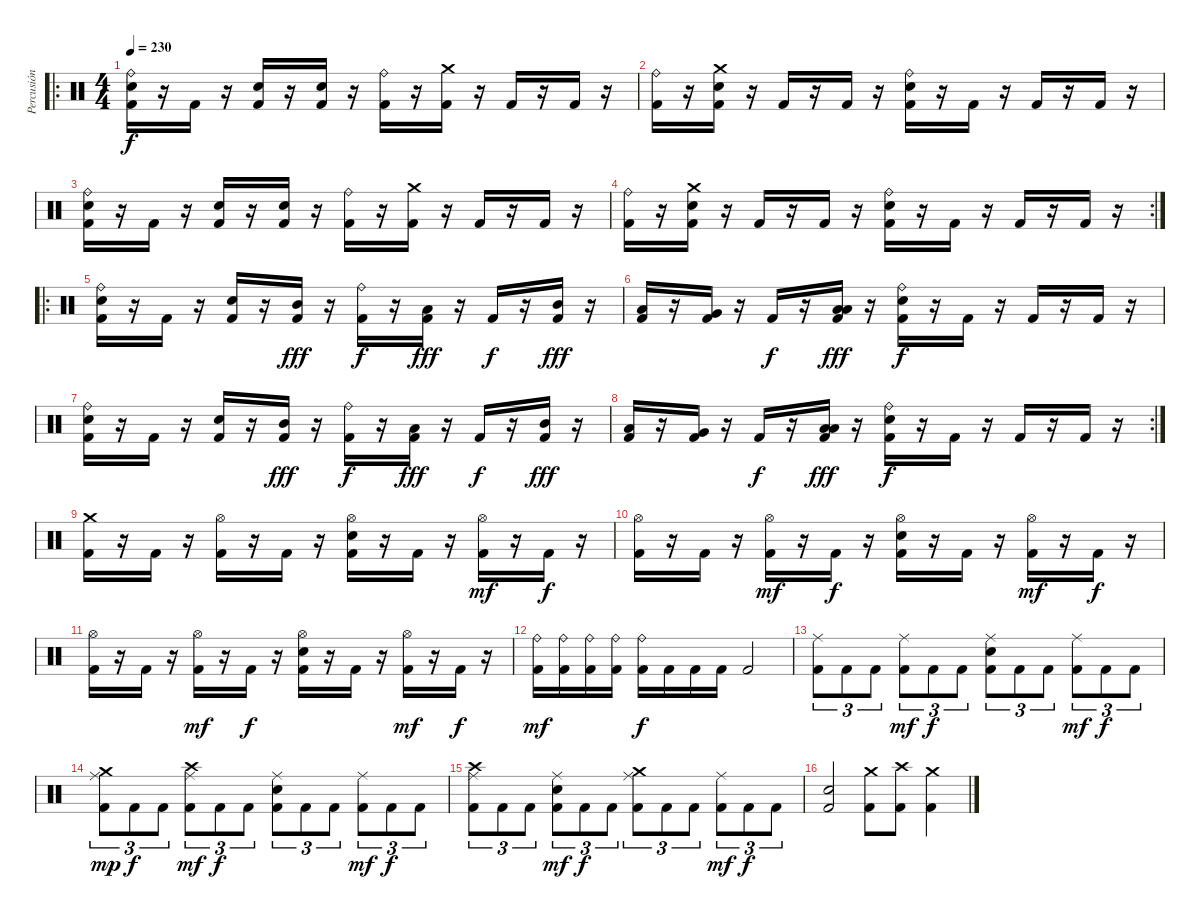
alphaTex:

\track ("Percusión" "Percusión") {instrument percussion}
\staff {score}
\articulation defaults
\ro
\ts (4 4)
\tempo 230
\clef neutral
\ks c
("Ride (bell)" "Kick (hit) 2" "Snare (hit) 2").16{dy f} r.16 "Kick (hit) 2".16 r.16 ("Kick (hit) 2" "Snare (hit) 2").16 r.16 ("Kick (hit) 2" "Snare (hit) 2").16 r.16 ("Ride (bell)" "Kick (hit) 2").16 r.16 ("Crash medium (hit)" "Kick (hit) 2").16 r.16 "Kick (hit) 2".16 r.16 "Kick (hit) 2".16 r.16 |
("Ride (bell)" "Kick (hit) 2").16 r.16 ("Crash medium (hit)" "Kick (hit) 2" "Snare (hit) 2").16 r.16 "Kick (hit) 2".16 r.16 "Kick (hit) 2".16 r.16 ("Ride (bell)" "Kick (hit) 2" "Snare (hit) 2").16 r.16 "Kick (hit) 2".16 r.16 "Kick (hit) 2".16 r.16 "Kick (hit) 2".16 r.16 |
("Ride (bell)" "Kick (hit) 2" "Snare (hit) 2").16 r.16 "Kick (hit) 2".16 r.16 ("Kick (hit) 2" "Snare (hit) 2").16 r.16 ("Kick (hit) 2" "Snare (hit) 2").16 r.16 ("Ride (bell)" "Kick (hit) 2").16 r.16 ("Crash medium (hit)" "Kick (hit) 2").16 r.16 "Kick (hit) 2".16 r.16 "Kick (hit) 2".16 r.16 |
\rc 2
("Ride (bell)" "Kick (hit) 2").16 r.16 ("Crash medium (hit)" "Kick (hit) 2" "Snare (hit) 2").16 r.16 "Kick (hit) 2".16 r.16 "Kick (hit) 2".16 r.16 ("Ride (bell)" "Kick (hit) 2" "Snare (hit) 2").16 r.16 "Kick (hit) 2".16 r.16 "Kick (hit) 2".16 r.16 "Kick (hit) 2".16 r.16 |
\ro
("Ride (bell)" "Kick (hit) 2" "Snare (hit) 2").16 r.16 "Kick (hit) 2".16 r.16 ("Kick (hit) 2" "Snare (hit) 2").16 r.16 ("Kick (hit) 2" "Mid Tom (hit)").16{dy fff} r.16 ("Ride (bell)" "Kick (hit) 2").16{dy f} r.16 ("Kick (hit) 2" "Low Tom (hit)").16{dy fff} r.16 "Kick (hit) 2".16{dy f} r.16 ("Kick (hit) 2" "Mid Tom (hit)").16{dy fff} r.16 |
("Kick (hit) 2" "Low Tom (hit)").16 r.16 ("Kick (hit) 2" "Very Low Tom (hit)").16 r.16 "Kick (hit) 2".16{dy f} r.16 ("Kick (hit) 2" "Low Tom (hit)" "Low Floor Tom (hit)").16{dy fff} r.16 ("Ride (bell)" "Kick (hit) 2" "Snare (hit) 2").16{dy f} r.16 "Kick (hit) 2".16 r.16 "Kick (hit) 2".16 r.16 "Kick (hit) 2".16 r.16 |
("Ride (bell)" "Kick (hit) 2" "Snare (hit) 2").16 r.16 "Kick (hit) 2".16 r.16 ("Kick (hit) 2" "Snare (hit) 2").16 r.16 ("Kick (hit) 2" "Mid Tom (hit)").16{dy fff} r.16 ("Ride (bell)" "Kick (hit) 2").16{dy f} r.16 ("Kick (hit) 2" "Low Tom (hit)").16{dy fff} r.16 "Kick (hit) 2".16{dy f} r.16 ("Kick (hit) 2" "Mid Tom (hit)").16{dy fff} r.16 |
\rc 2
("Kick (hit) 2" "Low Tom (hit)").16 r.16 ("Kick (hit) 2" "Very Low Tom (hit)").16 r.16 "Kick (hit) 2".16{dy f} r.16 ("Kick (hit) 2" "Low Tom (hit)" "Low Floor Tom (hit)").16{dy fff} r.16 ("Ride (bell)" "Kick (hit) 2" "Snare (hit) 2").16{dy f} r.16 "Kick (hit) 2".16 r.16 "Kick (hit) 2".16 r.16 "Kick (hit) 2".16 r.16 |
("Crash medium (hit)" "Kick (hit) 2").16 r.16 "Kick (hit) 2".16 r.16 ("Hi-Hat (open)" "Kick (hit) 2").16 r.16 "Kick (hit) 2".16 r.16 ("Hi-Hat (open)" "Kick (hit) 2" "Snare (hit) 2").16 r.16 "Kick (hit) 2".16 r.16 ("Hi-Hat (open)" "Kick (hit) 2").16{dy mf} r.16 "Kick (hit) 2".16{dy f} r.16 |
("Hi-Hat (open)" "Kick (hit) 2").16 r.16 "Kick (hit) 2".16 r.16 ("Hi-Hat (open)" "Kick (hit) 2").16{dy mf} r.16 "Kick (hit) 2".16{dy f} r.16 ("Hi-Hat (open)" "Kick (hit) 2" "Snare (hit) 2").16 r.16 "Kick (hit) 2".16 r.16 ("Hi-Hat (open)" "Kick (hit) 2").16{dy mf} r.16 "Kick (hit) 2".16{dy f} r.16 |
("Hi-Hat (open)" "Kick (hit) 2").16 r.16 "Kick (hit) 2".16 r.16 ("Hi-Hat (open)" "Kick (hit) 2").16{dy mf} r.16 "Kick (hit) 2".16{dy f} r.16 ("Hi-Hat (open)" "Kick (hit) 2" "Snare (hit) 2").16 r.16 "Kick (hit) 2".16 r.16 ("Hi-Hat (open)" "Kick (hit) 2").16{dy mf} r.16 "Kick (hit) 2".16{dy f} r.16 |
("Ride (bell)" "Kick (hit) 2").16{dy mf} ("Ride (bell)" "Kick (hit) 2").16 ("Ride (bell)" "Kick (hit) 2").16 ("Ride (bell)" "Kick (hit) 2").16 ("Ride (bell)" "Kick (hit) 2").16{dy f} "Kick (hit) 2".16 "Kick (hit) 2".16 "Kick (hit) 2".16 "Kick (hit) 2".2 |
("Ride (middle)" "Kick (hit) 2").8{tu (3 2)} "Kick (hit) 2".8{tu (3 2)} "Kick (hit) 2".8{tu (3 2)} ("Ride (middle)" "Kick (hit) 2").8{tu (3 2) dy mf} "Kick (hit) 2".8{tu (3 2) dy f} "Kick (hit) 2".8{tu (3 2)} ("Ride (middle)" "Kick (hit) 2" "Snare (hit) 2").8{tu (3 2)} "Kick (hit) 2".8{tu (3 2)} "Kick (hit) 2".8{tu (3 2)} ("Ride (middle)" "Kick (hit) 2").8{tu (3 2) dy mf} "Kick (hit) 2".8{tu (3 2) dy f} "Kick (hit) 2".8{tu (3 2)} |
("Crash medium (hit)" "Ride (middle)" "Kick (hit) 2").8{tu (3 2) dy mp} "Kick (hit) 2".8{tu (3 2) dy f} "Kick (hit) 2".8{tu (3 2)} ("Crash high (hit)" "Ride (middle)" "Kick (hit) 2").8{tu (3 2) dy mf} "Kick (hit) 2".8{tu (3 2) dy f} "Kick (hit) 2".8{tu (3 2)} ("Ride (middle)" "Kick (hit) 2" "Snare (hit) 2").8{tu (3 2)} "Kick (hit) 2".8{tu (3 2)} "Kick (hit) 2".8{tu (3 2)} ("Ride (middle)" "Kick (hit) 2").8{tu (3 2) dy mf} "Kick (hit) 2".8{tu (3 2) dy f} "Kick (hit) 2".8{tu (3 2)} |
("Crash high (hit)" "Ride (middle)" "Kick (hit) 2").8{tu (3 2)} "Kick (hit) 2".8{tu (3 2)} "Kick (hit) 2".8{tu (3 2)} ("Ride (middle)" "Kick (hit) 2" "Snare (hit) 2").8{tu (3 2) dy mf} "Kick (hit) 2".8{tu (3 2) dy f} "Kick (hit) 2".8{tu (3 2)} ("Crash medium (hit)" "Ride (middle)" "Kick (hit) 2").8{tu (3 2)} "Kick (hit) 2".8{tu (3 2)} "Kick (hit) 2".8{tu (3 2)} ("Ride (middle)" "Kick (hit) 2").8{tu (3 2) dy mf} "Kick (hit) 2".8{tu (3 2) dy f} "Kick (hit) 2".8{tu (3 2)} |
("Kick (hit) 2" "Snare (hit) 2").2 ("Crash medium (hit)" "Kick (hit) 2").8 ("Crash high (hit)" "Kick (hit) 2").8 ("Crash medium (hit)" "Kick (hit) 2").4
